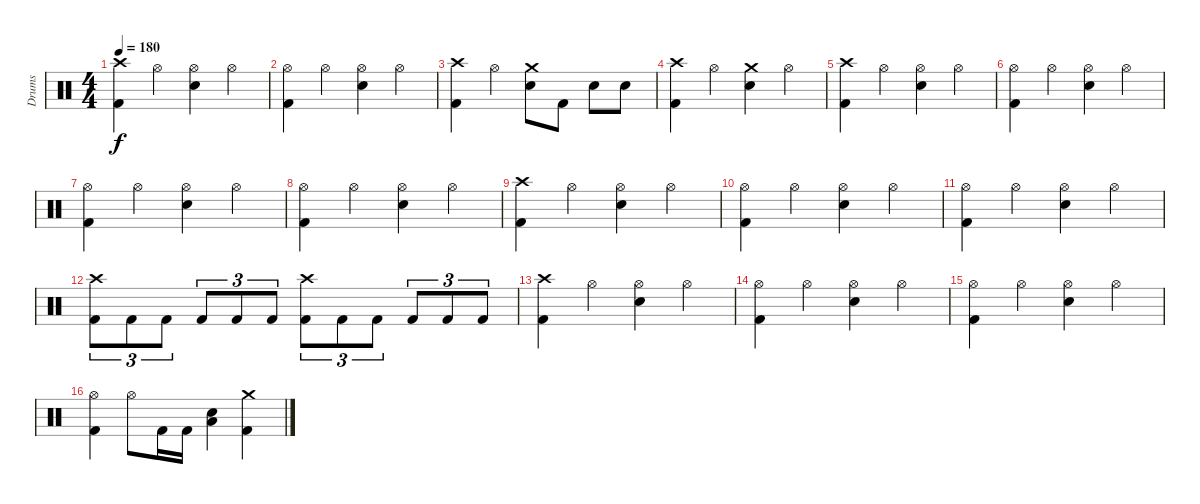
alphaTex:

\track ("Drums" "Drums") {instrument percussion}
\staff {score}
\articulation defaults
\ts (4 4)
\tempo 180
\clef neutral
\ks c
("Crash high (hit)" "Kick (hit) 2").4{dy f} "Hi-Hat (open)".4 ("Hi-Hat (open)" "Electric Snare (hit)").4 "Hi-Hat (open)".4 |
("Hi-Hat (open)" "Kick (hit) 2").4 "Hi-Hat (open)".4 ("Hi-Hat (open)" "Electric Snare (hit)").4 "Hi-Hat (open)".4 |
("Crash high (hit)" "Kick (hit) 2").4 "Hi-Hat (open)".4 ("Crash medium (hit)" "Electric Snare (hit)").8 "Kick (hit) 2".8 "Electric Snare (hit)".8 "Electric Snare (hit)".8 |
("Crash high (hit)" "Kick (hit) 2").4 "Hi-Hat (open)".4 ("Crash medium (hit)" "Electric Snare (hit)").4 "Hi-Hat (open)".4 |
("Crash high (hit)" "Kick (hit) 2").4 "Hi-Hat (open)".4 ("Hi-Hat (open)" "Electric Snare (hit)").4 "Hi-Hat (open)".4 |
("Hi-Hat (open)" "Kick (hit) 2").4 "Hi-Hat (open)".4 ("Hi-Hat (open)" "Electric Snare (hit)").4 "Hi-Hat (open)".4 |
("Hi-Hat (open)" "Kick (hit) 2").4 "Hi-Hat (open)".4 ("Hi-Hat (open)" "Electric Snare (hit)").4 "Hi-Hat (open)".4 |
("Hi-Hat (open)" "Kick (hit) 2").4 "Hi-Hat (open)".4 ("Hi-Hat (open)" "Electric Snare (hit)").4 "Hi-Hat (open)".4 |
("Crash high (hit)" "Kick (hit) 2").4 "Hi-Hat (open)".4 ("Hi-Hat (open)" "Electric Snare (hit)").4 "Hi-Hat (open)".4 |
("Hi-Hat (open)" "Kick (hit) 2").4 "Hi-Hat (open)".4 ("Hi-Hat (open)" "Electric Snare (hit)").4 "Hi-Hat (open)".4 |
("Hi-Hat (open)" "Kick (hit) 2").4 "Hi-Hat (open)".4 ("Hi-Hat (open)" "Electric Snare (hit)").4 "Hi-Hat (open)".4 |
("Crash high (hit)" "Kick (hit) 2").8{tu (3 2)} "Kick (hit) 2".8{tu (3 2)} "Kick (hit) 2".8{tu (3 2)} "Kick (hit) 2".8{tu (3 2)} "Kick (hit) 2".8{tu (3 2)} "Kick (hit) 2".8{tu (3 2)} ("Crash high (hit)" "Kick (hit) 2").8{tu (3 2)} "Kick (hit) 2".8{tu (3 2)} "Kick (hit) 2".8{tu (3 2)} "Kick (hit) 2".8{tu (3 2)} "Kick (hit) 2".8{tu (3 2)} "Kick (hit) 2".8{tu (3 2)} |
("Crash high (hit)" "Kick (hit) 2").4 "Hi-Hat (open)".4 ("Hi-Hat (open)" "Electric Snare (hit)").4 "Hi-Hat (open)".4 |
("Hi-Hat (open)" "Kick (hit) 2").4 "Hi-Hat (open)".4 ("Hi-Hat (open)" "Electric Snare (hit)").4 "Hi-Hat (open)".4 |
("Hi-Hat (open)" "Kick (hit) 2").4 "Hi-Hat (open)".4 ("Hi-Hat (open)" "Electric Snare (hit)").4 "Hi-Hat (open)".4 |
("Hi-Hat (open)" "Kick (hit) 2").4 "Hi-Hat (open)".8 "Kick (hit) 2".16 "Kick (hit) 2".16 ("Electric Snare (hit)" "Low Floor Tom (hit)").4 ("Crash medium (hit)" "Kick (hit) 2").4
